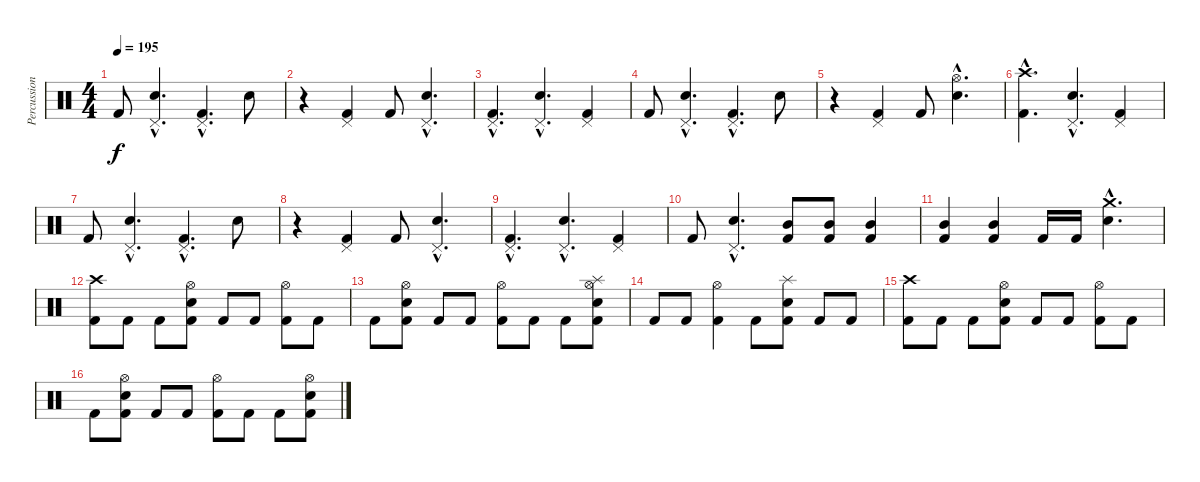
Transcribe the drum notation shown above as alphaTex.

\track ("Percussion" "Percussion") {instrument percussion}
\staff {score}
\articulation defaults
\ts (4 4)
\tempo 195
\clef neutral
\ks c "Kick (hit) 2".8{dy f}
("Pedal Hi-Hat (hit)"{hac} "Snare (hit) 2"{hac}).4{d} ("Pedal Hi-Hat (hit)"{hac} "Kick (hit) 2"{hac}).4{d} "Snare (hit) 2".8 |
r.4 ("Pedal Hi-Hat (hit)" "Kick (hit) 2").4 "Kick (hit) 2".8 ("Pedal Hi-Hat (hit)"{hac} "Snare (hit) 2"{hac}).4{d} |
("Pedal Hi-Hat (hit)"{hac} "Kick (hit) 2"{hac}).4{d} ("Pedal Hi-Hat (hit)"{hac} "Snare (hit) 2"{hac}).4{d} ("Pedal Hi-Hat (hit)" "Kick (hit) 2").4 |
"Kick (hit) 2".8 ("Pedal Hi-Hat (hit)"{hac} "Snare (hit) 2"{hac}).4{d} ("Pedal Hi-Hat (hit)"{hac} "Kick (hit) 2"{hac}).4{d} "Snare (hit) 2".8 |
r.4 ("Pedal Hi-Hat (hit)" "Kick (hit) 2").4 "Kick (hit) 2".8 ("Hi-Hat (open)"{hac} "Snare (hit) 2"{hac}).4{d} |
("Crash high (hit)"{hac} "Kick (hit) 2"{hac}).4{d} ("Pedal Hi-Hat (hit)"{hac} "Snare (hit) 2"{hac}).4{d} ("Pedal Hi-Hat (hit)" "Kick (hit) 2").4 |
"Kick (hit) 2".8 ("Pedal Hi-Hat (hit)"{hac} "Snare (hit) 2"{hac}).4{d} ("Pedal Hi-Hat (hit)"{hac} "Kick (hit) 2"{hac}).4{d} "Snare (hit) 2".8 |
r.4 ("Pedal Hi-Hat (hit)" "Kick (hit) 2").4 "Kick (hit) 2".8 ("Pedal Hi-Hat (hit)"{hac} "Snare (hit) 2"{hac}).4{d} |
("Pedal Hi-Hat (hit)"{hac} "Kick (hit) 2"{hac}).4{d} ("Pedal Hi-Hat (hit)"{hac} "Snare (hit) 2"{hac}).4{d} ("Pedal Hi-Hat (hit)" "Kick (hit) 2").4 |
"Kick (hit) 2".8 ("Pedal Hi-Hat (hit)"{hac} "Snare (hit) 2"{hac}).4{d} ("Mid Tom (hit)" "Kick (hit) 2").8 ("Mid Tom (hit)" "Kick (hit) 2").8 ("Mid Tom (hit)" "Kick (hit) 2").4 |
("Mid Tom (hit)" "Kick (hit) 2").4 ("Mid Tom (hit)" "Kick (hit) 2").4 "Kick (hit) 2".16 "Kick (hit) 2".16 ("Crash medium (hit)"{hac} "Snare (hit) 2"{hac}).4{d} |
("Crash high (hit)" "Kick (hit) 2").8 "Kick (hit) 2".8 "Kick (hit) 2".8 ("Hi-Hat (open)" "Snare (hit) 2" "Kick (hit) 2").8 "Kick (hit) 2".8 "Kick (hit) 2".8 ("Hi-Hat (open)" "Kick (hit) 2").8 "Kick (hit) 2".8 |
"Kick (hit) 2".8 ("Hi-Hat (open)" "Snare (hit) 2" "Kick (hit) 2").8 "Kick (hit) 2".8 "Kick (hit) 2".8 ("Hi-Hat (open)" "Kick (hit) 2").8 "Kick (hit) 2".8 "Kick (hit) 2".8 ("Splash (hit)" "Hi-Hat (open)" "Snare (hit) 2" "Kick (hit) 2").8 |
"Kick (hit) 2".8 "Kick (hit) 2".8 ("Hi-Hat (open)" "Kick (hit) 2").4 "Kick (hit) 2".8 ("Splash (hit)" "Snare (hit) 2" "Kick (hit) 2").8 "Kick (hit) 2".8 "Kick (hit) 2".8 |
("Crash high (hit)" "Kick (hit) 2").8 "Kick (hit) 2".8 "Kick (hit) 2".8 ("Hi-Hat (open)" "Snare (hit) 2" "Kick (hit) 2").8 "Kick (hit) 2".8 "Kick (hit) 2".8 ("Hi-Hat (open)" "Kick (hit) 2").8 "Kick (hit) 2".8 |
"Kick (hit) 2".8 ("Hi-Hat (open)" "Snare (hit) 2" "Kick (hit) 2").8 "Kick (hit) 2".8 "Kick (hit) 2".8 ("Hi-Hat (open)" "Kick (hit) 2").8 "Kick (hit) 2".8 "Kick (hit) 2".8 ("Hi-Hat (open)" "Snare (hit) 2" "Kick (hit) 2").8
